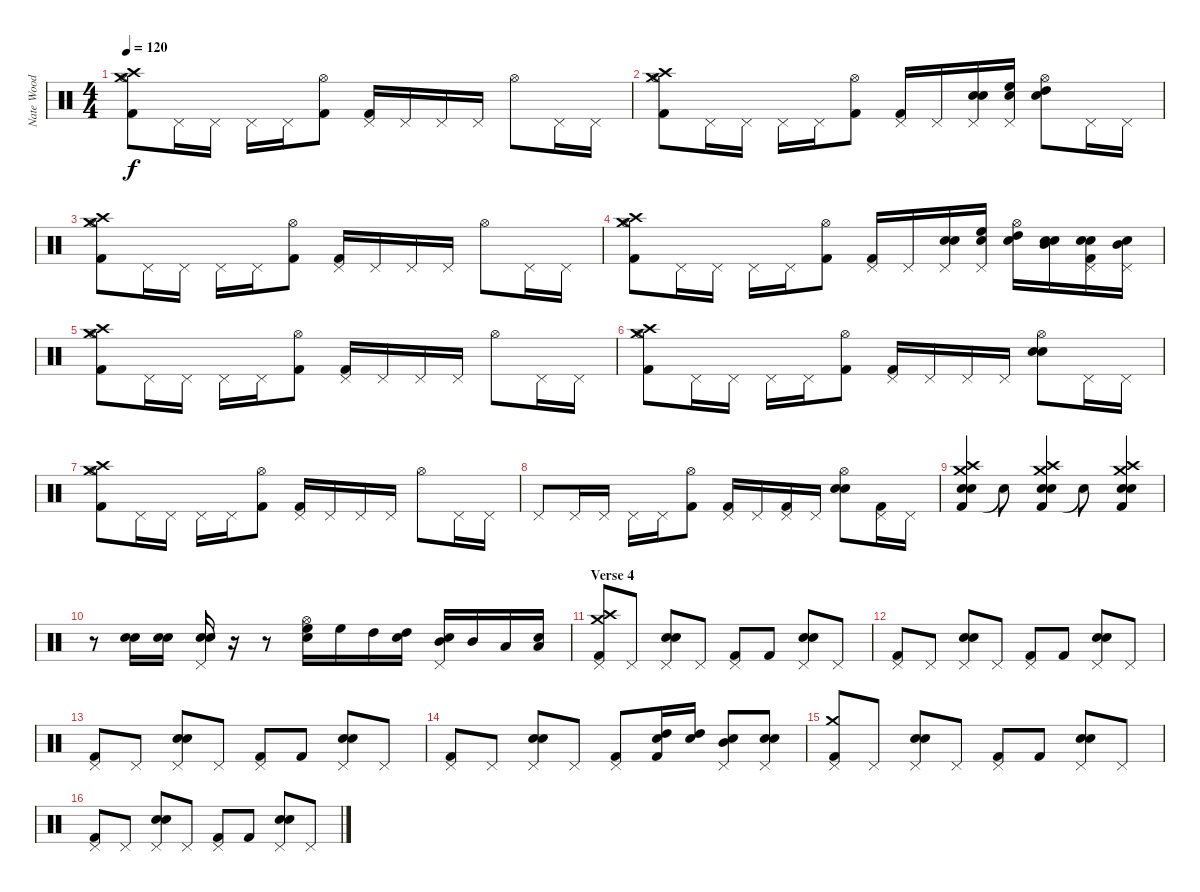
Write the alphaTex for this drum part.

\track ("Nate Wood  (Drums)" "Nate Wood ") {instrument percussion}
\staff {score}
\articulation defaults
\ts (4 4)
\tempo 120
\clef neutral
\ks c
("Kick (hit) 2" "Hi-Hat (open)" "Crash medium (hit)" "Crash high (hit)").8{dy f} "Pedal Hi-Hat (hit)".16 "Pedal Hi-Hat (hit)".16 "Pedal Hi-Hat (hit)".16 "Pedal Hi-Hat (hit)".16 ("Kick (hit) 2" "Hi-Hat (open)").8 ("Kick (hit) 2" "Pedal Hi-Hat (hit)").16 "Pedal Hi-Hat (hit)".16 "Pedal Hi-Hat (hit)".16 "Pedal Hi-Hat (hit)".16 "Hi-Hat (open)".8 "Pedal Hi-Hat (hit)".16 "Pedal Hi-Hat (hit)".16 |
("Kick (hit) 2" "Hi-Hat (open)" "Crash medium (hit)" "Crash high (hit)").8 "Pedal Hi-Hat (hit)".16 "Pedal Hi-Hat (hit)".16 "Pedal Hi-Hat (hit)".16 "Pedal Hi-Hat (hit)".16 ("Kick (hit) 2" "Hi-Hat (open)").8 ("Kick (hit) 2" "Pedal Hi-Hat (hit)").16 "Pedal Hi-Hat (hit)".16 ("Snare (hit) 2" "Pedal Hi-Hat (hit)" "Electric Snare (hit)").16 ("Snare (hit) 2" "Pedal Hi-Hat (hit)" "High Floor Tom (hit)").16 ("Snare (hit) 2" "Hi-Hat (open)" "High Tom (hit)").8 "Pedal Hi-Hat (hit)".16 "Pedal Hi-Hat (hit)".16 |
("Kick (hit) 2" "Hi-Hat (open)" "Crash medium (hit)" "Crash high (hit)").8 "Pedal Hi-Hat (hit)".16 "Pedal Hi-Hat (hit)".16 "Pedal Hi-Hat (hit)".16 "Pedal Hi-Hat (hit)".16 ("Kick (hit) 2" "Hi-Hat (open)").8 ("Kick (hit) 2" "Pedal Hi-Hat (hit)").16 "Pedal Hi-Hat (hit)".16 "Pedal Hi-Hat (hit)".16 "Pedal Hi-Hat (hit)".16 "Hi-Hat (open)".8 "Pedal Hi-Hat (hit)".16 "Pedal Hi-Hat (hit)".16 |
("Kick (hit) 2" "Hi-Hat (open)" "Crash medium (hit)" "Crash high (hit)").8 "Pedal Hi-Hat (hit)".16 "Pedal Hi-Hat (hit)".16 "Pedal Hi-Hat (hit)".16 "Pedal Hi-Hat (hit)".16 ("Kick (hit) 2" "Hi-Hat (open)").8 ("Kick (hit) 2" "Pedal Hi-Hat (hit)").16 "Pedal Hi-Hat (hit)".16 ("Snare (hit) 2" "Pedal Hi-Hat (hit)" "Electric Snare (hit)").16 ("Snare (hit) 2" "Pedal Hi-Hat (hit)" "High Floor Tom (hit)").16 ("Snare (hit) 2" "Hi-Hat (open)" "High Tom (hit)").16 ("Snare (hit) 2" "Electric Snare (hit)" "Mid Tom (hit)").16 ("Kick (hit) 2" "Snare (hit) 2" "Pedal Hi-Hat (hit)" "Electric Snare (hit)").16 ("Electric Snare (hit)" "Pedal Hi-Hat (hit)" "Mid Tom (hit)").16 |
("Kick (hit) 2" "Hi-Hat (open)" "Crash medium (hit)" "Crash high (hit)").8 "Pedal Hi-Hat (hit)".16 "Pedal Hi-Hat (hit)".16 "Pedal Hi-Hat (hit)".16 "Pedal Hi-Hat (hit)".16 ("Kick (hit) 2" "Hi-Hat (open)").8 ("Kick (hit) 2" "Pedal Hi-Hat (hit)").16 "Pedal Hi-Hat (hit)".16 "Pedal Hi-Hat (hit)".16 "Pedal Hi-Hat (hit)".16 "Hi-Hat (open)".8 "Pedal Hi-Hat (hit)".16 "Pedal Hi-Hat (hit)".16 |
("Kick (hit) 2" "Hi-Hat (open)" "Crash medium (hit)" "Crash high (hit)").8 "Pedal Hi-Hat (hit)".16 "Pedal Hi-Hat (hit)".16 "Pedal Hi-Hat (hit)".16 "Pedal Hi-Hat (hit)".16 ("Kick (hit) 2" "Hi-Hat (open)").8 ("Kick (hit) 2" "Pedal Hi-Hat (hit)").16 "Pedal Hi-Hat (hit)".16 "Pedal Hi-Hat (hit)".16 "Pedal Hi-Hat (hit)".16 ("Snare (hit) 2" "Hi-Hat (open)" "Electric Snare (hit)").8 "Pedal Hi-Hat (hit)".16 "Pedal Hi-Hat (hit)".16 |
("Kick (hit) 2" "Hi-Hat (open)" "Crash medium (hit)" "Crash high (hit)").8 "Pedal Hi-Hat (hit)".16 "Pedal Hi-Hat (hit)".16 "Pedal Hi-Hat (hit)".16 "Pedal Hi-Hat (hit)".16 ("Kick (hit) 2" "Hi-Hat (open)").8 ("Kick (hit) 2" "Pedal Hi-Hat (hit)").16 "Pedal Hi-Hat (hit)".16 "Pedal Hi-Hat (hit)".16 "Pedal Hi-Hat (hit)".16 "Hi-Hat (open)".8 "Pedal Hi-Hat (hit)".16 "Pedal Hi-Hat (hit)".16 |
"Pedal Hi-Hat (hit)".8 "Pedal Hi-Hat (hit)".16 "Pedal Hi-Hat (hit)".16 "Pedal Hi-Hat (hit)".16 "Pedal Hi-Hat (hit)".16 ("Kick (hit) 2" "Hi-Hat (open)").8 ("Kick (hit) 2" "Pedal Hi-Hat (hit)").16 "Pedal Hi-Hat (hit)".16 ("Kick (hit) 2" "Pedal Hi-Hat (hit)").16 "Pedal Hi-Hat (hit)".16 ("Snare (hit) 2" "Hi-Hat (open)" "Electric Snare (hit)").8 ("Kick (hit) 2" "Pedal Hi-Hat (hit)").16 "Pedal Hi-Hat (hit)".16 |
("Kick (hit) 2" "Electric Snare (hit)" "Crash medium (hit)" "Crash high (hit)" "Snare (hit) 2").4 "Snare (hit)"{t}.8 ("Kick (hit) 2" "Electric Snare (hit)" "Crash medium (hit)" "Crash high (hit)" "Snare (hit) 2").4 "Snare (hit)"{t}.8 ("Kick (hit) 2" "Electric Snare (hit)" "Crash medium (hit)" "Crash high (hit)" "Snare (hit) 2").4 |
r.8 ("Snare (hit) 2" "Electric Snare (hit)").16 ("Snare (hit) 2" "Electric Snare (hit)").16 ("Pedal Hi-Hat (hit)" "Snare (hit) 2" "Electric Snare (hit)").16 r.16 r.8 ("Hi-Hat (open)" "Snare (hit) 2" "High Floor Tom (hit)").16 "High Floor Tom (hit)".16 "High Tom (hit)".16 ("Snare (hit) 2" "High Tom (hit)").16 ("Pedal Hi-Hat (hit)" "Snare (hit) 2" "Mid Tom (hit)").16 "Mid Tom (hit)".16 "Low Tom (hit)".16 ("Snare (hit) 2" "Low Tom (hit)").16 |
\section ("" "Verse 4")
("Pedal Hi-Hat (hit)" "Kick (hit) 2" "Crash medium (hit)" "Crash high (hit)").8 "Pedal Hi-Hat (hit)".8 ("Pedal Hi-Hat (hit)" "Snare (hit) 2" "Electric Snare (hit)").8 "Pedal Hi-Hat (hit)".8 ("Pedal Hi-Hat (hit)" "Kick (hit) 2").8 "Kick (hit) 2".8 ("Pedal Hi-Hat (hit)" "Snare (hit) 2" "Electric Snare (hit)").8 "Pedal Hi-Hat (hit)".8 |
("Pedal Hi-Hat (hit)" "Kick (hit) 2").8 "Pedal Hi-Hat (hit)".8 ("Pedal Hi-Hat (hit)" "Snare (hit) 2" "Electric Snare (hit)").8 "Pedal Hi-Hat (hit)".8 ("Pedal Hi-Hat (hit)" "Kick (hit) 2").8 "Kick (hit) 2".8 ("Pedal Hi-Hat (hit)" "Snare (hit) 2" "Electric Snare (hit)").8 "Pedal Hi-Hat (hit)".8 |
("Pedal Hi-Hat (hit)" "Kick (hit) 2").8 "Pedal Hi-Hat (hit)".8 ("Pedal Hi-Hat (hit)" "Snare (hit) 2" "Electric Snare (hit)").8 "Pedal Hi-Hat (hit)".8 ("Pedal Hi-Hat (hit)" "Kick (hit) 2").8 "Kick (hit) 2".8 ("Pedal Hi-Hat (hit)" "Snare (hit) 2" "Electric Snare (hit)").8 "Pedal Hi-Hat (hit)".8 |
("Pedal Hi-Hat (hit)" "Kick (hit) 2").8 "Pedal Hi-Hat (hit)".8 ("Pedal Hi-Hat (hit)" "Snare (hit) 2" "Electric Snare (hit)").8 "Pedal Hi-Hat (hit)".8 ("Pedal Hi-Hat (hit)" "Kick (hit) 2").8 ("Snare (hit) 2" "High Tom (hit)" "Kick (hit) 2").16 ("Snare (hit) 2" "High Tom (hit)").16 ("Pedal Hi-Hat (hit)" "Snare (hit) 2" "Mid Tom (hit)").8 ("Pedal Hi-Hat (hit)" "Snare (hit) 2" "Electric Snare (hit)").8 |
("Pedal Hi-Hat (hit)" "Kick (hit) 2" "Crash medium (hit)").8 "Pedal Hi-Hat (hit)".8 ("Pedal Hi-Hat (hit)" "Snare (hit) 2" "Electric Snare (hit)").8 "Pedal Hi-Hat (hit)".8 ("Pedal Hi-Hat (hit)" "Kick (hit) 2").8 "Kick (hit) 2".8 ("Pedal Hi-Hat (hit)" "Snare (hit) 2" "Electric Snare (hit)").8 "Pedal Hi-Hat (hit)".8 |
("Pedal Hi-Hat (hit)" "Kick (hit) 2").8 "Pedal Hi-Hat (hit)".8 ("Pedal Hi-Hat (hit)" "Snare (hit) 2" "Electric Snare (hit)").8 "Pedal Hi-Hat (hit)".8 ("Pedal Hi-Hat (hit)" "Kick (hit) 2").8 "Kick (hit) 2".8 ("Pedal Hi-Hat (hit)" "Snare (hit) 2" "Electric Snare (hit)").8 "Pedal Hi-Hat (hit)".8
